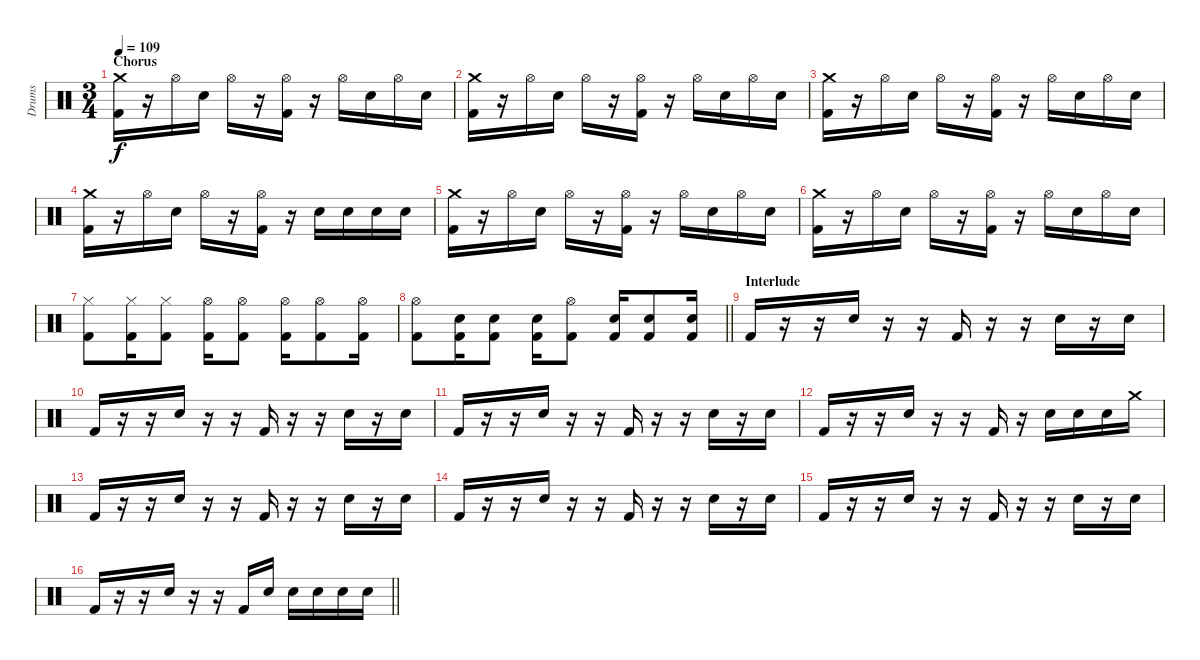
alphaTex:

\track ("Drums" "Drums") {instrument percussion}
\staff {score}
\articulation defaults
\ts (3 4)
\section ("" "Chorus")
\tempo 109
\clef neutral
\ks c
("Crash medium (hit)" "Kick (hit) 2").16{dy f} r.16 "Hi-Hat (open)".16 "Electric Snare (hit)".16 "Hi-Hat (open)".16 r.16 ("Hi-Hat (open)" "Kick (hit) 2").16 r.16 "Hi-Hat (open)".16 "Electric Snare (hit)".16 "Hi-Hat (open)".16 "Electric Snare (hit)".16 |
("Crash medium (hit)" "Kick (hit) 2").16 r.16 "Hi-Hat (open)".16 "Electric Snare (hit)".16 "Hi-Hat (open)".16 r.16 ("Hi-Hat (open)" "Kick (hit) 2").16 r.16 "Hi-Hat (open)".16 "Electric Snare (hit)".16 "Hi-Hat (open)".16 "Electric Snare (hit)".16 |
("Crash medium (hit)" "Kick (hit) 2").16 r.16 "Hi-Hat (open)".16 "Electric Snare (hit)".16 "Hi-Hat (open)".16 r.16 ("Hi-Hat (open)" "Kick (hit) 2").16 r.16 "Hi-Hat (open)".16 "Electric Snare (hit)".16 "Hi-Hat (open)".16 "Electric Snare (hit)".16 |
("Crash medium (hit)" "Kick (hit) 2").16 r.16 "Hi-Hat (open)".16 "Electric Snare (hit)".16 "Hi-Hat (open)".16 r.16 ("Hi-Hat (open)" "Kick (hit) 2").16 r.16 "Electric Snare (hit)".16 "Electric Snare (hit)".16 "Electric Snare (hit)".16 "Electric Snare (hit)".16 |
("Crash medium (hit)" "Kick (hit) 2").16 r.16 "Hi-Hat (open)".16 "Electric Snare (hit)".16 "Hi-Hat (open)".16 r.16 ("Hi-Hat (open)" "Kick (hit) 2").16 r.16 "Hi-Hat (open)".16 "Electric Snare (hit)".16 "Hi-Hat (open)".16 "Electric Snare (hit)".16 |
("Crash medium (hit)" "Kick (hit) 2").16 r.16 "Hi-Hat (open)".16 "Electric Snare (hit)".16 "Hi-Hat (open)".16 r.16 ("Hi-Hat (open)" "Kick (hit) 2").16 r.16 "Hi-Hat (open)".16 "Electric Snare (hit)".16 "Hi-Hat (open)".16 "Electric Snare (hit)".16 |
("Hi-Hat (closed)" "Kick (hit) 2").8 ("Hi-Hat (closed)" "Kick (hit) 2").16 ("Hi-Hat (closed)" "Kick (hit) 2").8 ("Hi-Hat (open)" "Kick (hit) 2").16 ("Hi-Hat (open)" "Kick (hit) 2").8 ("Hi-Hat (open)" "Kick (hit) 2").16 ("Hi-Hat (open)" "Kick (hit) 2").8 ("Hi-Hat (open)" "Kick (hit) 2").16 |
\barLineRight lightlight
("Hi-Hat (open)" "Kick (hit) 2").8 ("Electric Snare (hit)" "Kick (hit) 2").16 ("Electric Snare (hit)" "Kick (hit) 2").8 ("Electric Snare (hit)" "Kick (hit) 2").16 ("Hi-Hat (open)" "Kick (hit) 2").8 ("Electric Snare (hit)" "Kick (hit) 2").16 ("Electric Snare (hit)" "Kick (hit) 2").8 ("Electric Snare (hit)" "Kick (hit) 2").16 |
\section ("" "Interlude")
"Kick (hit) 2".16 r.16 r.16 "Electric Snare (hit)".16 r.16 r.16 "Kick (hit) 2".16 r.16 r.16 "Electric Snare (hit)".16 r.16 "Electric Snare (hit)".16 |
"Kick (hit) 2".16 r.16 r.16 "Electric Snare (hit)".16 r.16 r.16 "Kick (hit) 2".16 r.16 r.16 "Electric Snare (hit)".16 r.16 "Electric Snare (hit)".16 |
"Kick (hit) 2".16 r.16 r.16 "Electric Snare (hit)".16 r.16 r.16 "Kick (hit) 2".16 r.16 r.16 "Electric Snare (hit)".16 r.16 "Electric Snare (hit)".16 |
"Kick (hit) 2".16 r.16 r.16 "Electric Snare (hit)".16 r.16 r.16 "Kick (hit) 2".16 r.16 "Electric Snare (hit)".16 "Electric Snare (hit)".16 "Electric Snare (hit)".16 "Crash medium (hit)".16 |
"Kick (hit) 2".16 r.16 r.16 "Electric Snare (hit)".16 r.16 r.16 "Kick (hit) 2".16 r.16 r.16 "Electric Snare (hit)".16 r.16 "Electric Snare (hit)".16 |
"Kick (hit) 2".16 r.16 r.16 "Electric Snare (hit)".16 r.16 r.16 "Kick (hit) 2".16 r.16 r.16 "Electric Snare (hit)".16 r.16 "Electric Snare (hit)".16 |
"Kick (hit) 2".16 r.16 r.16 "Electric Snare (hit)".16 r.16 r.16 "Kick (hit) 2".16 r.16 r.16 "Electric Snare (hit)".16 r.16 "Electric Snare (hit)".16 |
\barLineRight lightlight "Kick (hit) 2".16
r.16 r.16 "Electric Snare (hit)".16 r.16 r.16 "Kick (hit) 2".16 "Electric Snare (hit)".16 "Electric Snare (hit)".16 "Electric Snare (hit)".16 "Electric Snare (hit)".16 "Electric Snare (hit)".16
